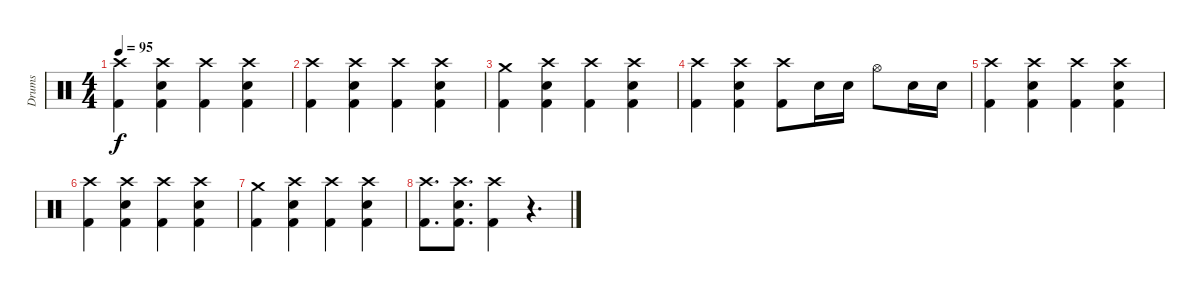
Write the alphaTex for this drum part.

\track ("Drums" "Drums") {instrument percussion}
\staff {score}
\articulation defaults
\ts (4 4)
\tempo 95
\clef neutral
\ks c
("Crash high (hit)" "Kick (hit) 2").4{dy f} ("Crash high (hit)" "Snare (hit) 2" "Kick (hit) 2").4 ("Crash high (hit)" "Kick (hit) 2").4 ("Crash high (hit)" "Snare (hit) 2" "Kick (hit) 2").4 |
("Crash high (hit)" "Kick (hit) 2").4 ("Crash high (hit)" "Snare (hit) 2" "Kick (hit) 2").4 ("Crash high (hit)" "Kick (hit) 2").4 ("Crash high (hit)" "Snare (hit) 2" "Kick (hit) 2").4 |
("Crash medium (hit)" "Kick (hit) 2").4 ("Crash high (hit)" "Snare (hit) 2" "Kick (hit) 2").4 ("Crash high (hit)" "Kick (hit) 2").4 ("Crash high (hit)" "Snare (hit) 2" "Kick (hit) 2").4 |
("Crash high (hit)" "Kick (hit) 2").4 ("Crash high (hit)" "Snare (hit) 2" "Kick (hit) 2").4 ("Crash high (hit)" "Kick (hit) 2").8 "Snare (hit) 2".16 "Snare (hit) 2".16 "Hi-Hat (open)".8 "Snare (hit) 2".16 "Snare (hit) 2".16 |
("Crash high (hit)" "Kick (hit) 2").4 ("Crash high (hit)" "Snare (hit) 2" "Kick (hit) 2").4 ("Crash high (hit)" "Kick (hit) 2").4 ("Crash high (hit)" "Snare (hit) 2" "Kick (hit) 2").4 |
("Crash high (hit)" "Kick (hit) 2").4 ("Crash high (hit)" "Snare (hit) 2" "Kick (hit) 2").4 ("Crash high (hit)" "Kick (hit) 2").4 ("Crash high (hit)" "Snare (hit) 2" "Kick (hit) 2").4 |
("Crash medium (hit)" "Kick (hit) 2").4 ("Crash high (hit)" "Snare (hit) 2" "Kick (hit) 2").4 ("Crash high (hit)" "Kick (hit) 2").4 ("Crash high (hit)" "Snare (hit) 2" "Kick (hit) 2").4 |
("Crash high (hit)" "Kick (hit) 2").8{d} ("Crash high (hit)" "Snare (hit) 2" "Kick (hit) 2").8{d} ("Crash high (hit)" "Kick (hit) 2").4 r.4{d}
